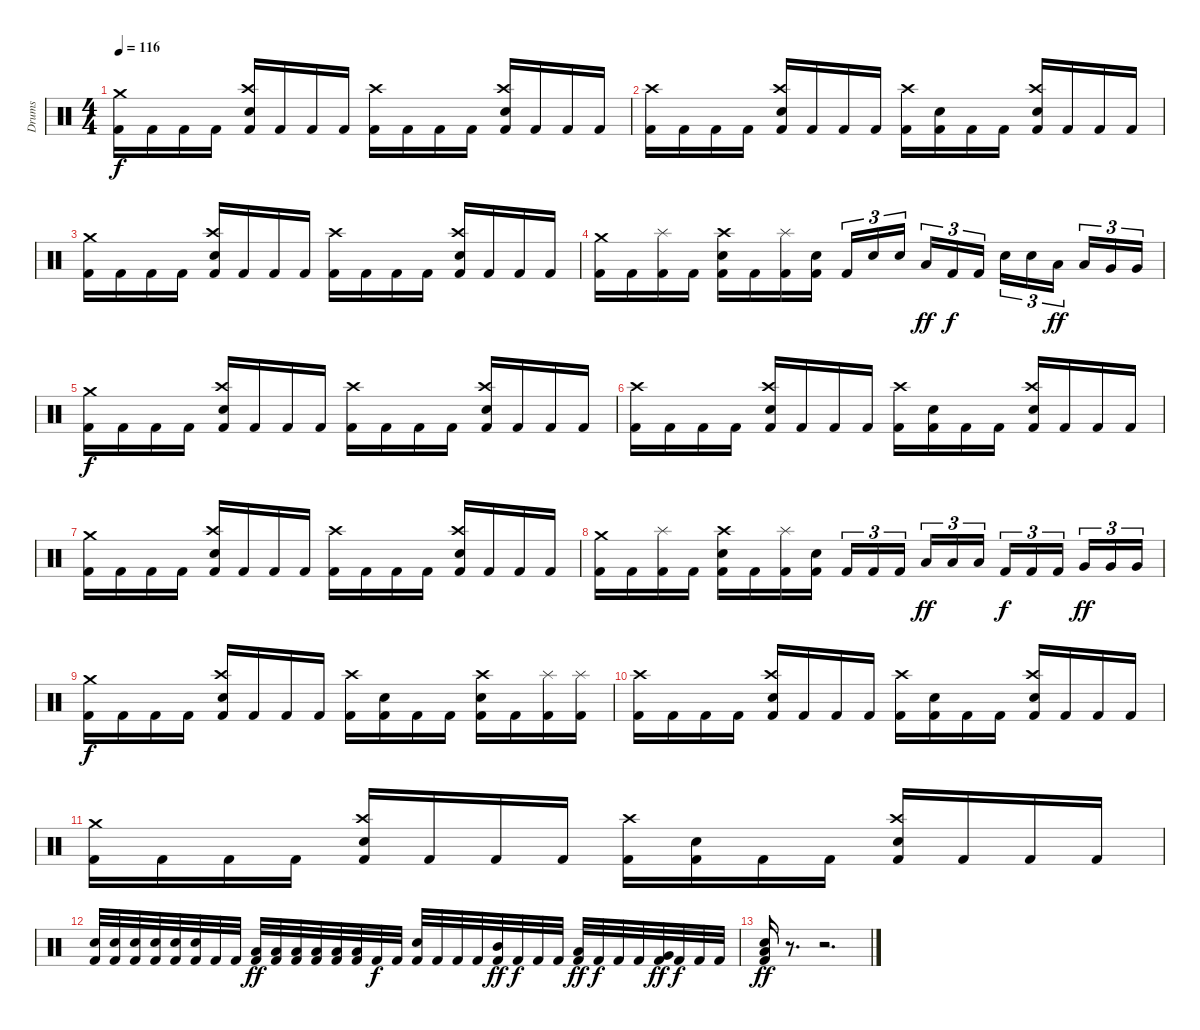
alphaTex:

\track ("Drums" "Drums") {instrument percussion}
\staff {score}
\articulation defaults
\ts (4 4)
\tempo 116
\clef neutral
\ks c
("Crash medium (hit)" "Kick (hit) 2").16{dy f} "Kick (hit) 2".16 "Kick (hit) 2".16 "Kick (hit) 2".16 ("Crash high (hit)" "Snare (hit) 2" "Kick (hit) 2").16 "Kick (hit) 2".16 "Kick (hit) 2".16 "Kick (hit) 2".16 ("Crash high (hit)" "Kick (hit) 2").16 "Kick (hit) 2".16 "Kick (hit) 2".16 "Kick (hit) 2".16 ("Crash high (hit)" "Snare (hit) 2" "Kick (hit) 2").16 "Kick (hit) 2".16 "Kick (hit) 2".16 "Kick (hit) 2".16 |
("Crash high (hit)" "Kick (hit) 2").16 "Kick (hit) 2".16 "Kick (hit) 2".16 "Kick (hit) 2".16 ("Crash high (hit)" "Snare (hit) 2" "Kick (hit) 2").16 "Kick (hit) 2".16 "Kick (hit) 2".16 "Kick (hit) 2".16 ("Crash high (hit)" "Kick (hit) 2").16 ("Snare (hit) 2" "Kick (hit) 2").16 "Kick (hit) 2".16 "Kick (hit) 2".16 ("Crash high (hit)" "Snare (hit) 2" "Kick (hit) 2").16 "Kick (hit) 2".16 "Kick (hit) 2".16 "Kick (hit) 2".16 |
("Crash medium (hit)" "Kick (hit) 2").16 "Kick (hit) 2".16 "Kick (hit) 2".16 "Kick (hit) 2".16 ("Crash high (hit)" "Snare (hit) 2" "Kick (hit) 2").16 "Kick (hit) 2".16 "Kick (hit) 2".16 "Kick (hit) 2".16 ("Crash high (hit)" "Kick (hit) 2").16 "Kick (hit) 2".16 "Kick (hit) 2".16 "Kick (hit) 2".16 ("Crash high (hit)" "Snare (hit) 2" "Kick (hit) 2").16 "Kick (hit) 2".16 "Kick (hit) 2".16 "Kick (hit) 2".16 |
("Crash medium (hit)" "Kick (hit) 2").16 "Kick (hit) 2".16 ("Splash (hit)" "Kick (hit) 2").16 "Kick (hit) 2".16 ("Crash high (hit)" "Snare (hit) 2" "Kick (hit) 2").16 "Kick (hit) 2".16 ("Splash (hit)" "Kick (hit) 2").16 ("Snare (hit) 2" "Kick (hit) 2").16 "Kick (hit) 2".16{tu (3 2)} "Snare (hit) 2".16{tu (3 2)} "Snare (hit) 2".16{tu (3 2)} "Low Tom (hit)".16{tu (3 2) dy ff} "Kick (hit) 2".16{tu (3 2) dy f} "Kick (hit) 2".16{tu (3 2)} "Snare (hit) 2".16{tu (3 2)} "Snare (hit) 2".16{tu (3 2)} "Low Tom (hit)".16{tu (3 2) dy ff} "Low Tom (hit)".16{tu (3 2)} "Very Low Tom (hit)".16{tu (3 2)} "Very Low Tom (hit)".16{tu (3 2)} |
("Crash medium (hit)" "Kick (hit) 2").16{dy f} "Kick (hit) 2".16 "Kick (hit) 2".16 "Kick (hit) 2".16 ("Crash high (hit)" "Snare (hit) 2" "Kick (hit) 2").16 "Kick (hit) 2".16 "Kick (hit) 2".16 "Kick (hit) 2".16 ("Crash high (hit)" "Kick (hit) 2").16 "Kick (hit) 2".16 "Kick (hit) 2".16 "Kick (hit) 2".16 ("Crash high (hit)" "Snare (hit) 2" "Kick (hit) 2").16 "Kick (hit) 2".16 "Kick (hit) 2".16 "Kick (hit) 2".16 |
("Crash high (hit)" "Kick (hit) 2").16 "Kick (hit) 2".16 "Kick (hit) 2".16 "Kick (hit) 2".16 ("Crash high (hit)" "Snare (hit) 2" "Kick (hit) 2").16 "Kick (hit) 2".16 "Kick (hit) 2".16 "Kick (hit) 2".16 ("Crash high (hit)" "Kick (hit) 2").16 ("Snare (hit) 2" "Kick (hit) 2").16 "Kick (hit) 2".16 "Kick (hit) 2".16 ("Crash high (hit)" "Snare (hit) 2" "Kick (hit) 2").16 "Kick (hit) 2".16 "Kick (hit) 2".16 "Kick (hit) 2".16 |
("Crash medium (hit)" "Kick (hit) 2").16 "Kick (hit) 2".16 "Kick (hit) 2".16 "Kick (hit) 2".16 ("Crash high (hit)" "Snare (hit) 2" "Kick (hit) 2").16 "Kick (hit) 2".16 "Kick (hit) 2".16 "Kick (hit) 2".16 ("Crash high (hit)" "Kick (hit) 2").16 "Kick (hit) 2".16 "Kick (hit) 2".16 "Kick (hit) 2".16 ("Crash high (hit)" "Snare (hit) 2" "Kick (hit) 2").16 "Kick (hit) 2".16 "Kick (hit) 2".16 "Kick (hit) 2".16 |
("Crash medium (hit)" "Kick (hit) 2").16 "Kick (hit) 2".16 ("Splash (hit)" "Kick (hit) 2").16 "Kick (hit) 2".16 ("Crash high (hit)" "Snare (hit) 2" "Kick (hit) 2").16 "Kick (hit) 2".16 ("Splash (hit)" "Kick (hit) 2").16 ("Snare (hit) 2" "Kick (hit) 2").16 "Kick (hit) 2".16{tu (3 2)} "Kick (hit) 2".16{tu (3 2)} "Kick (hit) 2".16{tu (3 2)} "Low Tom (hit)".16{tu (3 2) dy ff} "Low Tom (hit)".16{tu (3 2)} "Low Tom (hit)".16{tu (3 2)} "Kick (hit) 2".16{tu (3 2) dy f} "Kick (hit) 2".16{tu (3 2)} "Kick (hit) 2".16{tu (3 2)} "Very Low Tom (hit)".16{tu (3 2) dy ff} "Very Low Tom (hit)".16{tu (3 2)} "Very Low Tom (hit)".16{tu (3 2)} |
("Crash medium (hit)" "Kick (hit) 2").16{dy f} "Kick (hit) 2".16 "Kick (hit) 2".16 "Kick (hit) 2".16 ("Crash high (hit)" "Snare (hit) 2" "Kick (hit) 2").16 "Kick (hit) 2".16 "Kick (hit) 2".16 "Kick (hit) 2".16 ("Crash high (hit)" "Kick (hit) 2").16 ("Snare (hit) 2" "Kick (hit) 2").16 "Kick (hit) 2".16 "Kick (hit) 2".16 ("Crash high (hit)" "Snare (hit) 2" "Kick (hit) 2").16 "Kick (hit) 2".16 ("Splash (hit)" "Kick (hit) 2").16 ("Splash (hit)" "Kick (hit) 2").16 |
("Crash high (hit)" "Kick (hit) 2").16 "Kick (hit) 2".16 "Kick (hit) 2".16 "Kick (hit) 2".16 ("Crash high (hit)" "Snare (hit) 2" "Kick (hit) 2").16 "Kick (hit) 2".16 "Kick (hit) 2".16 "Kick (hit) 2".16 ("Crash high (hit)" "Kick (hit) 2").16 ("Snare (hit) 2" "Kick (hit) 2").16 "Kick (hit) 2".16 "Kick (hit) 2".16 ("Crash high (hit)" "Snare (hit) 2" "Kick (hit) 2").16 "Kick (hit) 2".16 "Kick (hit) 2".16 "Kick (hit) 2".16 |
("Crash medium (hit)" "Kick (hit) 2").16 "Kick (hit) 2".16 "Kick (hit) 2".16 "Kick (hit) 2".16 ("Crash high (hit)" "Snare (hit) 2" "Kick (hit) 2").16 "Kick (hit) 2".16 "Kick (hit) 2".16 "Kick (hit) 2".16 ("Crash high (hit)" "Kick (hit) 2").16 ("Snare (hit) 2" "Kick (hit) 2").16 "Kick (hit) 2".16 "Kick (hit) 2".16 ("Crash high (hit)" "Snare (hit) 2" "Kick (hit) 2").16 "Kick (hit) 2".16 "Kick (hit) 2".16 "Kick (hit) 2".16 |
("Snare (hit) 2" "Kick (hit) 2").32 ("Snare (hit) 2" "Kick (hit) 2").32 ("Snare (hit) 2" "Kick (hit) 2").32 ("Snare (hit) 2" "Kick (hit) 2").32 ("Snare (hit) 2" "Kick (hit) 2").32 ("Snare (hit) 2" "Kick (hit) 2").32 "Kick (hit) 2".32 "Kick (hit) 2".32 ("Low Floor Tom (hit)" "Kick (hit) 2").32{dy ff} ("Low Floor Tom (hit)" "Kick (hit) 2").32 ("Low Floor Tom (hit)" "Kick (hit) 2").32 ("Low Floor Tom (hit)" "Kick (hit) 2").32 ("Low Floor Tom (hit)" "Kick (hit) 2").32 ("Low Floor Tom (hit)" "Kick (hit) 2").32 "Kick (hit) 2".32{dy f} "Kick (hit) 2".32 ("Snare (hit) 2" "Kick (hit) 2").32 "Kick (hit) 2".32 "Kick (hit) 2".32 "Kick (hit) 2".32 ("Mid Tom (hit)" "Kick (hit) 2").32{dy ff} "Kick (hit) 2".32{dy f} "Kick (hit) 2".32 "Kick (hit) 2".32 ("Low Tom (hit)" "Kick (hit) 2").32{dy ff} "Kick (hit) 2".32{dy f} "Kick (hit) 2".32 "Kick (hit) 2".32 ("Very Low Tom (hit)" "Kick (hit) 2").32{dy ff} "Kick (hit) 2".32{dy f} "Kick (hit) 2".32 "Kick (hit) 2".32 |
("Low Floor Tom (hit)" "Snare (hit) 2" "Kick (hit) 2").16{dy ff} r.8{d} r.2{d}
